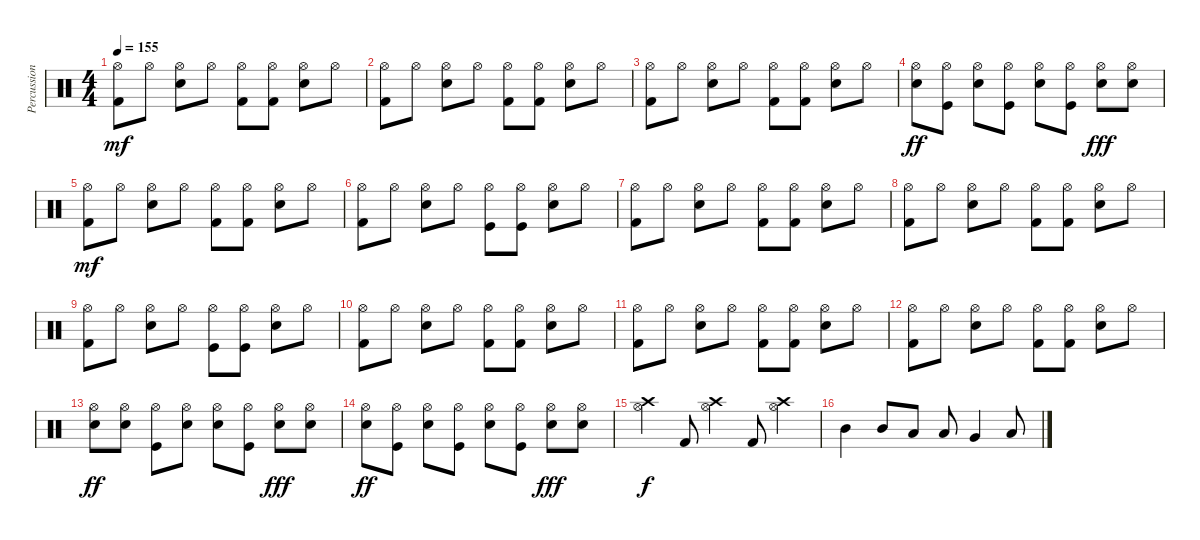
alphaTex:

\track ("Percussion" "Percussion") {instrument percussion}
\staff {score}
\articulation defaults
\ts (4 4)
\tempo 155
\clef neutral
\ks c
("Kick (hit) 2" "Hi-Hat (open)").8{dy mf} "Hi-Hat (open)".8 ("Snare (hit) 2" "Hi-Hat (open)").8 "Hi-Hat (open)".8 ("Kick (hit) 2" "Hi-Hat (open)").8 ("Kick (hit) 2" "Hi-Hat (open)").8 ("Snare (hit) 2" "Hi-Hat (open)").8 "Hi-Hat (open)".8 |
("Kick (hit) 2" "Hi-Hat (open)").8 "Hi-Hat (open)".8 ("Snare (hit) 2" "Hi-Hat (open)").8 "Hi-Hat (open)".8 ("Kick (hit) 2" "Hi-Hat (open)").8 ("Kick (hit) 2" "Hi-Hat (open)").8 ("Snare (hit) 2" "Hi-Hat (open)").8 "Hi-Hat (open)".8 |
("Kick (hit) 2" "Hi-Hat (open)").8 "Hi-Hat (open)".8 ("Snare (hit) 2" "Hi-Hat (open)").8 "Hi-Hat (open)".8 ("Kick (hit) 2" "Hi-Hat (open)").8 ("Kick (hit) 2" "Hi-Hat (open)").8 ("Snare (hit) 2" "Hi-Hat (open)").8 "Hi-Hat (open)".8 |
("Snare (hit) 2" "Hi-Hat (open)").8{dy ff} ("Kick (hit)" "Hi-Hat (open)").8 ("Snare (hit) 2" "Hi-Hat (open)").8 ("Kick (hit)" "Hi-Hat (open)").8 ("Snare (hit) 2" "Hi-Hat (open)").8 ("Kick (hit)" "Hi-Hat (open)").8 ("Snare (hit) 2" "Hi-Hat (open)").8{dy fff} ("Snare (hit) 2" "Hi-Hat (open)").8 |
("Kick (hit) 2" "Hi-Hat (open)").8{dy mf} "Hi-Hat (open)".8 ("Snare (hit) 2" "Hi-Hat (open)").8 "Hi-Hat (open)".8 ("Kick (hit) 2" "Hi-Hat (open)").8 ("Kick (hit) 2" "Hi-Hat (open)").8 ("Snare (hit) 2" "Hi-Hat (open)").8 "Hi-Hat (open)".8 |
("Kick (hit) 2" "Hi-Hat (open)").8 "Hi-Hat (open)".8 ("Snare (hit) 2" "Hi-Hat (open)").8 "Hi-Hat (open)".8 ("Kick (hit)" "Hi-Hat (open)").8 ("Kick (hit)" "Hi-Hat (open)").8 ("Snare (hit) 2" "Hi-Hat (open)").8 "Hi-Hat (open)".8 |
("Kick (hit) 2" "Hi-Hat (open)").8 "Hi-Hat (open)".8 ("Snare (hit) 2" "Hi-Hat (open)").8 "Hi-Hat (open)".8 ("Kick (hit) 2" "Hi-Hat (open)").8 ("Kick (hit) 2" "Hi-Hat (open)").8 ("Snare (hit) 2" "Hi-Hat (open)").8 "Hi-Hat (open)".8 |
("Kick (hit) 2" "Hi-Hat (open)").8 "Hi-Hat (open)".8 ("Snare (hit) 2" "Hi-Hat (open)").8 "Hi-Hat (open)".8 ("Kick (hit) 2" "Hi-Hat (open)").8 ("Kick (hit) 2" "Hi-Hat (open)").8 ("Snare (hit) 2" "Hi-Hat (open)").8 "Hi-Hat (open)".8 |
("Kick (hit) 2" "Hi-Hat (open)").8 "Hi-Hat (open)".8 ("Snare (hit) 2" "Hi-Hat (open)").8 "Hi-Hat (open)".8 ("Kick (hit)" "Hi-Hat (open)").8 ("Kick (hit)" "Hi-Hat (open)").8 ("Snare (hit) 2" "Hi-Hat (open)").8 "Hi-Hat (open)".8 |
("Kick (hit) 2" "Hi-Hat (open)").8 "Hi-Hat (open)".8 ("Snare (hit) 2" "Hi-Hat (open)").8 "Hi-Hat (open)".8 ("Kick (hit) 2" "Hi-Hat (open)").8 ("Kick (hit) 2" "Hi-Hat (open)").8 ("Snare (hit) 2" "Hi-Hat (open)").8 "Hi-Hat (open)".8 |
("Kick (hit) 2" "Hi-Hat (open)").8 "Hi-Hat (open)".8 ("Snare (hit) 2" "Hi-Hat (open)").8 "Hi-Hat (open)".8 ("Kick (hit) 2" "Hi-Hat (open)").8 ("Kick (hit) 2" "Hi-Hat (open)").8 ("Snare (hit) 2" "Hi-Hat (open)").8 "Hi-Hat (open)".8 |
("Kick (hit) 2" "Hi-Hat (open)").8 "Hi-Hat (open)".8 ("Snare (hit) 2" "Hi-Hat (open)").8 "Hi-Hat (open)".8 ("Kick (hit) 2" "Hi-Hat (open)").8 ("Kick (hit) 2" "Hi-Hat (open)").8 ("Snare (hit) 2" "Hi-Hat (open)").8 "Hi-Hat (open)".8 |
("Snare (hit) 2" "Hi-Hat (open)").8{dy ff} ("Snare (hit) 2" "Hi-Hat (open)").8 ("Kick (hit)" "Hi-Hat (open)").8 ("Snare (hit) 2" "Hi-Hat (open)").8 ("Snare (hit) 2" "Hi-Hat (open)").8 ("Kick (hit)" "Hi-Hat (open)").8 ("Snare (hit) 2" "Hi-Hat (open)").8{dy fff} ("Snare (hit) 2" "Hi-Hat (open)").8 |
("Snare (hit) 2" "Hi-Hat (open)").8{dy ff} ("Kick (hit)" "Hi-Hat (open)").8 ("Snare (hit) 2" "Hi-Hat (open)").8 ("Kick (hit)" "Hi-Hat (open)").8 ("Snare (hit) 2" "Hi-Hat (open)").8 ("Kick (hit)" "Hi-Hat (open)").8 ("Snare (hit) 2" "Hi-Hat (open)").8{dy fff} ("Snare (hit) 2" "Hi-Hat (open)").8 |
("Crash high (hit)" "Hi-Hat (open)").4{dy f} "Kick (hit) 2".8 ("Hi-Hat (open)" "Crash high (hit)").4 "Kick (hit) 2".8 ("Hi-Hat (open)" "Crash high (hit)").4 |
"Mid Tom (hit)".4 "Mid Tom (hit)".8 "Low Tom (hit)".8 "Low Tom (hit)".8 "Very Low Tom (hit)".4 "Low Floor Tom (hit)".8
